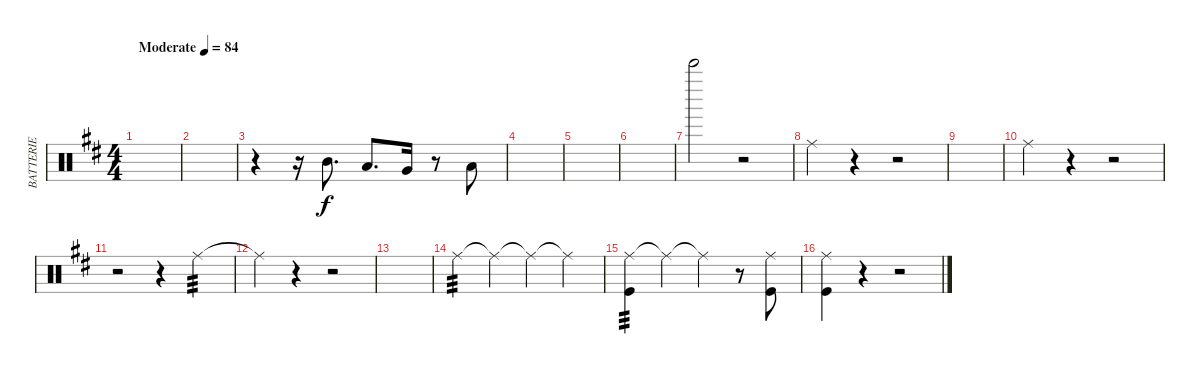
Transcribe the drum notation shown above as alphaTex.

\track ("BATTERIE" "BATTERIE") {instrument percussion}
\staff {score}
\articulation defaults
\ts (4 4)
\tempo (84 "Moderate")
\clef neutral
\ks d
|
|
r.4 r.16 "Mid Tom (hit)".8{d} "Low Tom (hit)".8{d} "Very Low Tom (hit)".16 r.8 "Low Floor Tom (hit)".8{beam Down} |
|
|
|
"Bell Tree (hit)".2 r.2 |
"Ride (middle)".4 r.4 r.2 |
|
"Ride (middle)".4 r.4 r.2 |
r.2 r.4 "Ride (middle)".4{tp 3} |
"Ride (middle)"{t}.4 r.4 r.2 |
|
"Ride (middle)".4{tp 3} "Ride (middle)"{t}.4 "Ride (middle)"{t}.4 "Ride (middle)"{t}.4 |
("Ride (middle)" "Kick (hit)").4{tp 3} "Ride (middle)"{t}.4 "Ride (middle)"{t}.4 r.8 ("Ride (middle)" "Kick (hit)").8 |
("Ride (middle)" "Kick (hit)").4 r.4 r.2
